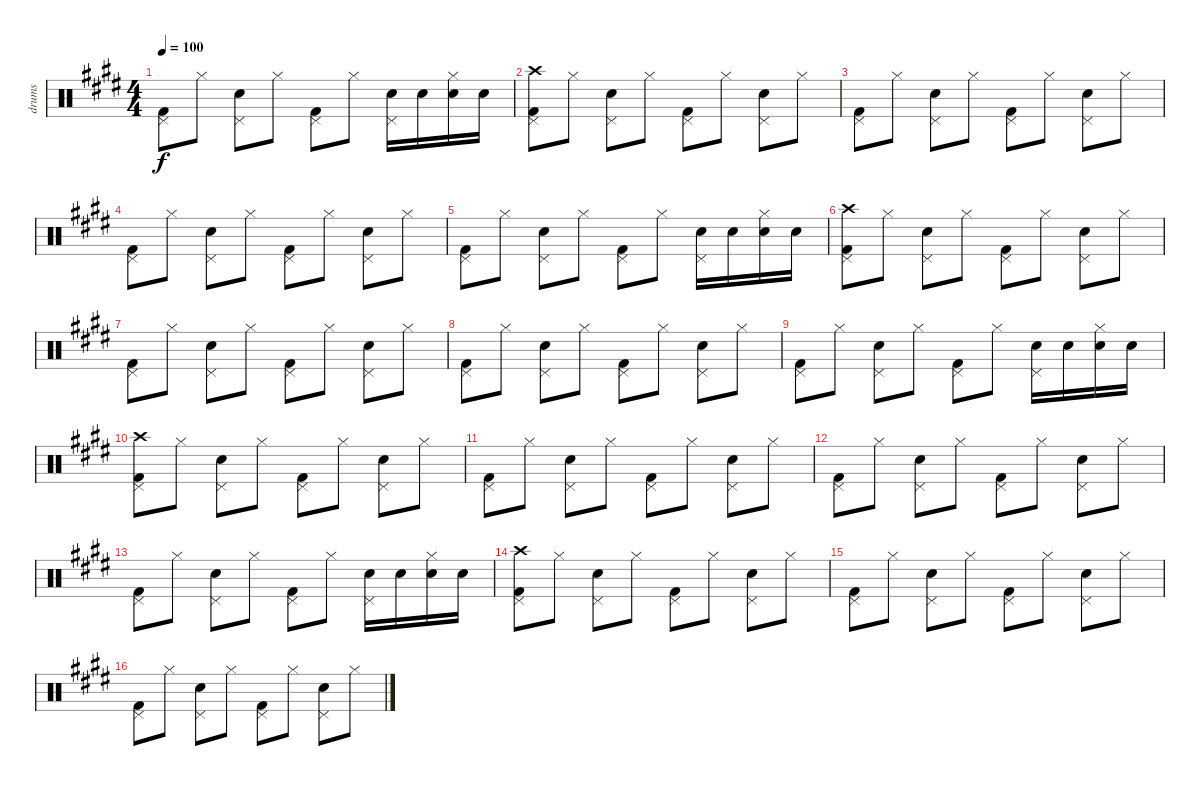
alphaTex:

\track ("drums" "drums") {instrument percussion}
\staff {score}
\articulation defaults
\ts (4 4)
\tempo 100
\clef neutral
\ks e
("Pedal Hi-Hat (hit)" "Kick (hit) 2").8{dy f} "Hi-Hat (closed)".8 ("Snare (hit) 2" "Pedal Hi-Hat (hit)").8 "Hi-Hat (closed)".8 ("Pedal Hi-Hat (hit)" "Kick (hit) 2").8 "Hi-Hat (closed)".8 ("Snare (hit) 2" "Pedal Hi-Hat (hit)").16 "Snare (hit) 2".16 ("Snare (hit) 2" "Hi-Hat (closed)").16 "Snare (hit) 2".16 |
("Crash high (hit)" "Pedal Hi-Hat (hit)" "Kick (hit) 2").8 "Hi-Hat (closed)".8 ("Snare (hit) 2" "Pedal Hi-Hat (hit)").8 "Hi-Hat (closed)".8 ("Pedal Hi-Hat (hit)" "Kick (hit) 2").8 "Hi-Hat (closed)".8 ("Snare (hit) 2" "Pedal Hi-Hat (hit)").8 "Hi-Hat (closed)".8 |
("Pedal Hi-Hat (hit)" "Kick (hit) 2").8 "Hi-Hat (closed)".8 ("Snare (hit) 2" "Pedal Hi-Hat (hit)").8 "Hi-Hat (closed)".8 ("Pedal Hi-Hat (hit)" "Kick (hit) 2").8 "Hi-Hat (closed)".8 ("Snare (hit) 2" "Pedal Hi-Hat (hit)").8 "Hi-Hat (closed)".8 |
("Pedal Hi-Hat (hit)" "Kick (hit) 2").8 "Hi-Hat (closed)".8 ("Snare (hit) 2" "Pedal Hi-Hat (hit)").8 "Hi-Hat (closed)".8 ("Pedal Hi-Hat (hit)" "Kick (hit) 2").8 "Hi-Hat (closed)".8 ("Snare (hit) 2" "Pedal Hi-Hat (hit)").8 "Hi-Hat (closed)".8 |
("Pedal Hi-Hat (hit)" "Kick (hit) 2").8 "Hi-Hat (closed)".8 ("Snare (hit) 2" "Pedal Hi-Hat (hit)").8 "Hi-Hat (closed)".8 ("Pedal Hi-Hat (hit)" "Kick (hit) 2").8 "Hi-Hat (closed)".8 ("Snare (hit) 2" "Pedal Hi-Hat (hit)").16 "Snare (hit) 2".16 ("Snare (hit) 2" "Hi-Hat (closed)").16 "Snare (hit) 2".16 |
("Crash high (hit)" "Pedal Hi-Hat (hit)" "Kick (hit) 2").8 "Hi-Hat (closed)".8 ("Snare (hit) 2" "Pedal Hi-Hat (hit)").8 "Hi-Hat (closed)".8 ("Pedal Hi-Hat (hit)" "Kick (hit) 2").8 "Hi-Hat (closed)".8 ("Snare (hit) 2" "Pedal Hi-Hat (hit)").8 "Hi-Hat (closed)".8 |
("Pedal Hi-Hat (hit)" "Kick (hit) 2").8 "Hi-Hat (closed)".8 ("Snare (hit) 2" "Pedal Hi-Hat (hit)").8 "Hi-Hat (closed)".8 ("Pedal Hi-Hat (hit)" "Kick (hit) 2").8 "Hi-Hat (closed)".8 ("Snare (hit) 2" "Pedal Hi-Hat (hit)").8 "Hi-Hat (closed)".8 |
("Pedal Hi-Hat (hit)" "Kick (hit) 2").8 "Hi-Hat (closed)".8 ("Snare (hit) 2" "Pedal Hi-Hat (hit)").8 "Hi-Hat (closed)".8 ("Pedal Hi-Hat (hit)" "Kick (hit) 2").8 "Hi-Hat (closed)".8 ("Snare (hit) 2" "Pedal Hi-Hat (hit)").8 "Hi-Hat (closed)".8 |
("Pedal Hi-Hat (hit)" "Kick (hit) 2").8 "Hi-Hat (closed)".8 ("Snare (hit) 2" "Pedal Hi-Hat (hit)").8 "Hi-Hat (closed)".8 ("Pedal Hi-Hat (hit)" "Kick (hit) 2").8 "Hi-Hat (closed)".8 ("Snare (hit) 2" "Pedal Hi-Hat (hit)").16 "Snare (hit) 2".16 ("Snare (hit) 2" "Hi-Hat (closed)").16 "Snare (hit) 2".16 |
("Crash high (hit)" "Pedal Hi-Hat (hit)" "Kick (hit) 2").8 "Hi-Hat (closed)".8 ("Snare (hit) 2" "Pedal Hi-Hat (hit)").8 "Hi-Hat (closed)".8 ("Pedal Hi-Hat (hit)" "Kick (hit) 2").8 "Hi-Hat (closed)".8 ("Snare (hit) 2" "Pedal Hi-Hat (hit)").8 "Hi-Hat (closed)".8 |
("Pedal Hi-Hat (hit)" "Kick (hit) 2").8 "Hi-Hat (closed)".8 ("Snare (hit) 2" "Pedal Hi-Hat (hit)").8 "Hi-Hat (closed)".8 ("Pedal Hi-Hat (hit)" "Kick (hit) 2").8 "Hi-Hat (closed)".8 ("Snare (hit) 2" "Pedal Hi-Hat (hit)").8 "Hi-Hat (closed)".8 |
("Pedal Hi-Hat (hit)" "Kick (hit) 2").8 "Hi-Hat (closed)".8 ("Snare (hit) 2" "Pedal Hi-Hat (hit)").8 "Hi-Hat (closed)".8 ("Pedal Hi-Hat (hit)" "Kick (hit) 2").8 "Hi-Hat (closed)".8 ("Snare (hit) 2" "Pedal Hi-Hat (hit)").8 "Hi-Hat (closed)".8 |
("Pedal Hi-Hat (hit)" "Kick (hit) 2").8 "Hi-Hat (closed)".8 ("Snare (hit) 2" "Pedal Hi-Hat (hit)").8 "Hi-Hat (closed)".8 ("Pedal Hi-Hat (hit)" "Kick (hit) 2").8 "Hi-Hat (closed)".8 ("Snare (hit) 2" "Pedal Hi-Hat (hit)").16 "Snare (hit) 2".16 ("Snare (hit) 2" "Hi-Hat (closed)").16 "Snare (hit) 2".16 |
("Crash high (hit)" "Pedal Hi-Hat (hit)" "Kick (hit) 2").8 "Hi-Hat (closed)".8 ("Snare (hit) 2" "Pedal Hi-Hat (hit)").8 "Hi-Hat (closed)".8 ("Pedal Hi-Hat (hit)" "Kick (hit) 2").8 "Hi-Hat (closed)".8 ("Snare (hit) 2" "Pedal Hi-Hat (hit)").8 "Hi-Hat (closed)".8 |
("Pedal Hi-Hat (hit)" "Kick (hit) 2").8 "Hi-Hat (closed)".8 ("Snare (hit) 2" "Pedal Hi-Hat (hit)").8 "Hi-Hat (closed)".8 ("Pedal Hi-Hat (hit)" "Kick (hit) 2").8 "Hi-Hat (closed)".8 ("Snare (hit) 2" "Pedal Hi-Hat (hit)").8 "Hi-Hat (closed)".8 |
("Pedal Hi-Hat (hit)" "Kick (hit) 2").8 "Hi-Hat (closed)".8 ("Snare (hit) 2" "Pedal Hi-Hat (hit)").8 "Hi-Hat (closed)".8 ("Pedal Hi-Hat (hit)" "Kick (hit) 2").8 "Hi-Hat (closed)".8 ("Snare (hit) 2" "Pedal Hi-Hat (hit)").8 "Hi-Hat (closed)".8
